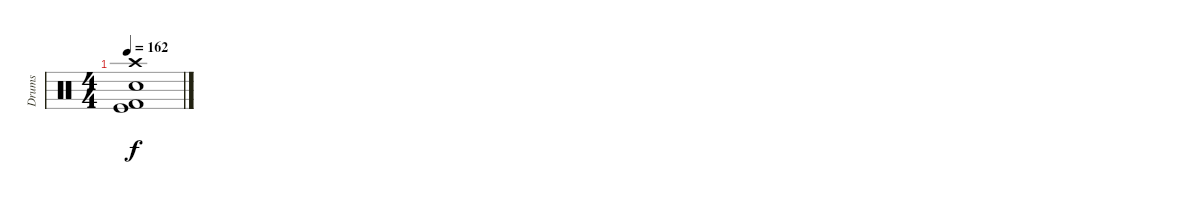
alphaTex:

\track ("Drums" "Drums") {instrument percussion}
\staff {score}
\articulation defaults
\ts (4 4)
\tempo 162
\clef neutral
\ks c
("Crash high (hit)" "Electric Snare (hit)" "Kick (hit)" "Kick (hit) 2").1{dy f}
